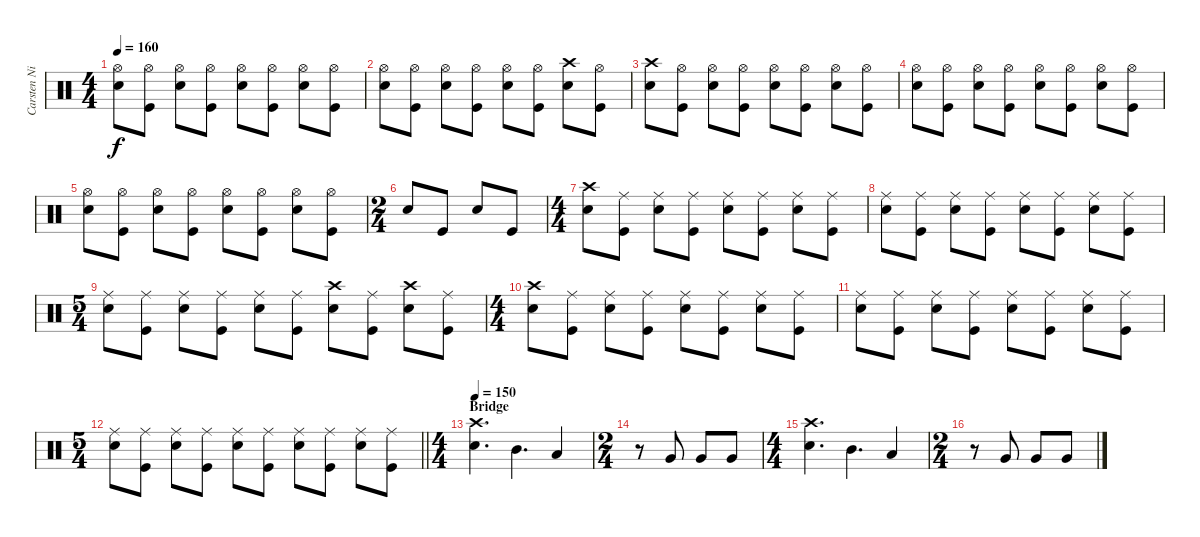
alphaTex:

\track ("Carsten Nielsen" "Carsten Ni") {instrument percussion}
\staff {score}
\articulation defaults
\ts (4 4)
\tempo 160
\clef neutral
\ks c
("Hi-Hat (open)" "Electric Snare (hit)").8{dy f} ("Hi-Hat (open)" "Kick (hit)").8 ("Hi-Hat (open)" "Electric Snare (hit)").8 ("Hi-Hat (open)" "Kick (hit)").8 ("Hi-Hat (open)" "Electric Snare (hit)").8 ("Hi-Hat (open)" "Kick (hit)").8 ("Hi-Hat (open)" "Electric Snare (hit)").8 ("Hi-Hat (open)" "Kick (hit)").8 |
("Hi-Hat (open)" "Electric Snare (hit)").8 ("Hi-Hat (open)" "Kick (hit)").8 ("Hi-Hat (open)" "Electric Snare (hit)").8 ("Hi-Hat (open)" "Kick (hit)").8 ("Hi-Hat (open)" "Electric Snare (hit)").8 ("Hi-Hat (open)" "Kick (hit)").8 ("Crash high (hit)" "Electric Snare (hit)").8 ("Hi-Hat (open)" "Kick (hit)").8 |
("Crash high (hit)" "Electric Snare (hit)").8 ("Hi-Hat (open)" "Kick (hit)").8 ("Hi-Hat (open)" "Electric Snare (hit)").8 ("Hi-Hat (open)" "Kick (hit)").8 ("Hi-Hat (open)" "Electric Snare (hit)").8 ("Hi-Hat (open)" "Kick (hit)").8 ("Hi-Hat (open)" "Electric Snare (hit)").8 ("Hi-Hat (open)" "Kick (hit)").8 |
("Hi-Hat (open)" "Electric Snare (hit)").8 ("Hi-Hat (open)" "Kick (hit)").8 ("Hi-Hat (open)" "Electric Snare (hit)").8 ("Hi-Hat (open)" "Kick (hit)").8 ("Hi-Hat (open)" "Electric Snare (hit)").8 ("Hi-Hat (open)" "Kick (hit)").8 ("Hi-Hat (open)" "Electric Snare (hit)").8 ("Hi-Hat (open)" "Kick (hit)").8 |
("Hi-Hat (open)" "Electric Snare (hit)").8 ("Hi-Hat (open)" "Kick (hit)").8 ("Hi-Hat (open)" "Electric Snare (hit)").8 ("Hi-Hat (open)" "Kick (hit)").8 ("Hi-Hat (open)" "Electric Snare (hit)").8 ("Hi-Hat (open)" "Kick (hit)").8 ("Hi-Hat (open)" "Electric Snare (hit)").8 ("Hi-Hat (open)" "Kick (hit)").8 |
\ts (2 4)
"Electric Snare (hit)".8 "Kick (hit)".8 "Electric Snare (hit)".8 "Kick (hit)".8 |
\ts (4 4)
("Crash high (hit)" "Electric Snare (hit)").8 ("Ride (middle)" "Kick (hit)").8 ("Ride (middle)" "Electric Snare (hit)").8 ("Ride (middle)" "Kick (hit)").8 ("Ride (middle)" "Electric Snare (hit)").8 ("Ride (middle)" "Kick (hit)").8 ("Ride (middle)" "Electric Snare (hit)").8 ("Ride (middle)" "Kick (hit)").8 |
("Ride (middle)" "Electric Snare (hit)").8 ("Ride (middle)" "Kick (hit)").8 ("Ride (middle)" "Electric Snare (hit)").8 ("Ride (middle)" "Kick (hit)").8 ("Ride (middle)" "Electric Snare (hit)").8 ("Ride (middle)" "Kick (hit)").8 ("Ride (middle)" "Electric Snare (hit)").8 ("Ride (middle)" "Kick (hit)").8 |
\ts (5 4)
("Ride (middle)" "Electric Snare (hit)").8 ("Ride (middle)" "Kick (hit)").8 ("Ride (middle)" "Electric Snare (hit)").8 ("Ride (middle)" "Kick (hit)").8 ("Ride (middle)" "Electric Snare (hit)").8 ("Ride (middle)" "Kick (hit)").8 ("Crash high (hit)" "Electric Snare (hit)").8 ("Ride (middle)" "Kick (hit)").8 ("Crash high (hit)" "Electric Snare (hit)").8 ("Ride (middle)" "Kick (hit)").8 |
\ts (4 4)
("Crash high (hit)" "Electric Snare (hit)").8 ("Ride (middle)" "Kick (hit)").8 ("Ride (middle)" "Electric Snare (hit)").8 ("Ride (middle)" "Kick (hit)").8 ("Ride (middle)" "Electric Snare (hit)").8 ("Ride (middle)" "Kick (hit)").8 ("Ride (middle)" "Electric Snare (hit)").8 ("Ride (middle)" "Kick (hit)").8 |
("Ride (middle)" "Electric Snare (hit)").8 ("Ride (middle)" "Kick (hit)").8 ("Ride (middle)" "Electric Snare (hit)").8 ("Ride (middle)" "Kick (hit)").8 ("Ride (middle)" "Electric Snare (hit)").8 ("Ride (middle)" "Kick (hit)").8 ("Ride (middle)" "Electric Snare (hit)").8 ("Ride (middle)" "Kick (hit)").8 |
\ts (5 4)
\barLineRight lightlight
("Ride (middle)" "Electric Snare (hit)").8 ("Ride (middle)" "Kick (hit)").8 ("Ride (middle)" "Electric Snare (hit)").8 ("Ride (middle)" "Kick (hit)").8 ("Ride (middle)" "Electric Snare (hit)").8 ("Ride (middle)" "Kick (hit)").8 ("Ride (middle)" "Electric Snare (hit)").8 ("Ride (middle)" "Kick (hit)").8 ("Ride (middle)" "Electric Snare (hit)").8 ("Ride (middle)" "Kick (hit)").8 |
\ts (4 4)
\section ("" "Bridge")
\tempo 150
("Crash high (hit)" "Electric Snare (hit)").4{d} "Mid Tom (hit)".4{d} "Low Tom (hit)".4 |
\ts (2 4)
r.8 "Very Low Tom (hit)".8 "Very Low Tom (hit)".8 "Very Low Tom (hit)".8 |
\ts (4 4)
("Crash high (hit)" "Electric Snare (hit)").4{d} "Mid Tom (hit)".4{d} "Low Tom (hit)".4 |
\ts (2 4)
r.8 "Very Low Tom (hit)".8 "Very Low Tom (hit)".8 "Very Low Tom (hit)".8
